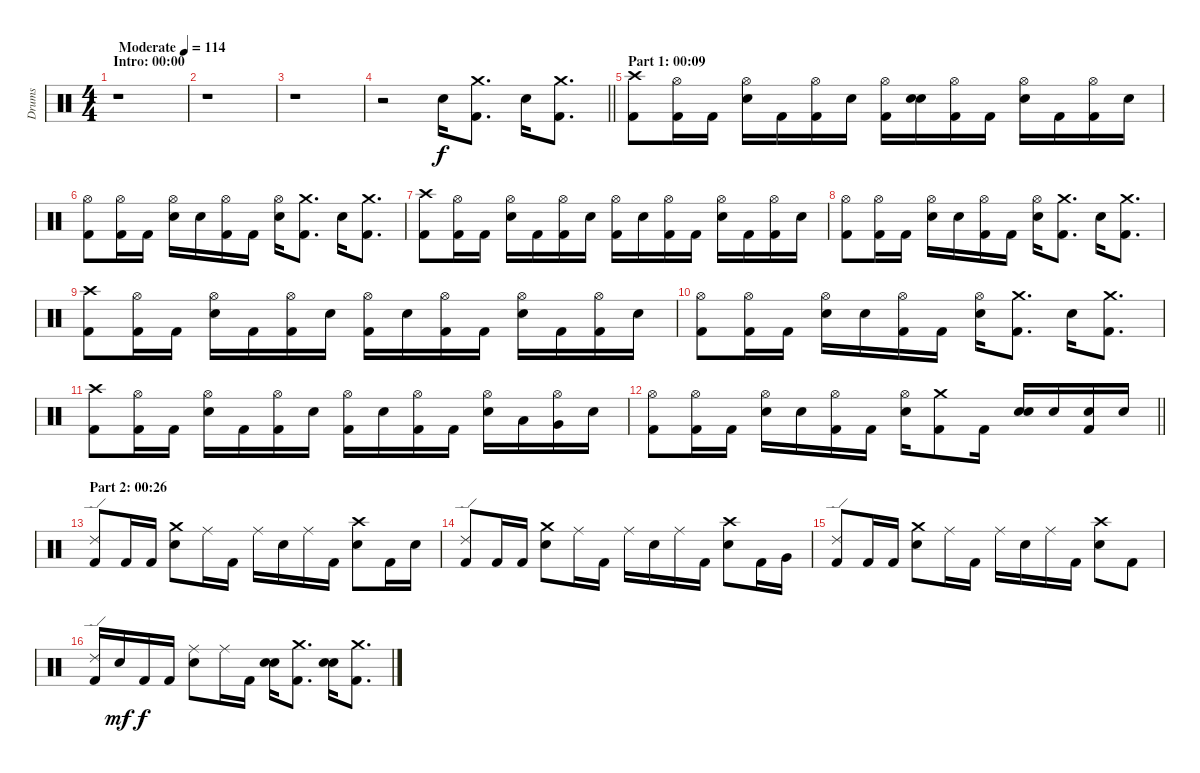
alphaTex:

\track ("Drums" "Drums") {instrument percussion}
\staff {score}
\articulation defaults
\ts (4 4)
\section ("" "Intro: 00:00")
\tempo (114 "Moderate")
\clef neutral
\ks c
r.1{dy f} |
r.1 |
r.1 |
\barLineRight lightlight
r.2 "Electric Snare (hit)".16 ("Crash medium (hit)" "Kick (hit) 2").8{d} "Electric Snare (hit)".16 ("Crash medium (hit)" "Kick (hit) 2").8{d} |
\section ("" "Part 1: 00:09")
("Crash high (hit)" "Kick (hit) 2").8 ("Hi-Hat (open)" "Kick (hit) 2").16 "Kick (hit) 2".16 ("Hi-Hat (open)" "Electric Snare (hit)").16 "Kick (hit) 2".16 ("Hi-Hat (open)" "Kick (hit) 2").16 "Electric Snare (hit)".16 ("Hi-Hat (open)" "Kick (hit) 2").16 ("Electric Snare (hit)" "Electric Snare (hit)").16{bd 120} ("Hi-Hat (open)" "Kick (hit) 2").16 "Kick (hit) 2".16 ("Hi-Hat (open)" "Electric Snare (hit)").16 "Kick (hit) 2".16 ("Hi-Hat (open)" "Kick (hit) 2").16 "Electric Snare (hit)".16 |
("Hi-Hat (open)" "Kick (hit) 2").8 ("Hi-Hat (open)" "Kick (hit) 2").16 "Kick (hit) 2".16 ("Hi-Hat (open)" "Electric Snare (hit)").16 "Electric Snare (hit)".16 ("Hi-Hat (open)" "Kick (hit) 2").16 "Kick (hit) 2".16 ("Hi-Hat (open)" "Electric Snare (hit)").16 ("Crash medium (hit)" "Kick (hit) 2").8{d} "Electric Snare (hit)".16 ("Crash medium (hit)" "Kick (hit) 2").8{d} |
("Crash high (hit)" "Kick (hit) 2").8 ("Hi-Hat (open)" "Kick (hit) 2").16 "Kick (hit) 2".16 ("Hi-Hat (open)" "Electric Snare (hit)").16 "Kick (hit) 2".16 ("Hi-Hat (open)" "Kick (hit) 2").16 "Electric Snare (hit)".16 ("Hi-Hat (open)" "Kick (hit) 2").16 "Electric Snare (hit)".16 ("Hi-Hat (open)" "Kick (hit) 2").16 "Kick (hit) 2".16 ("Hi-Hat (open)" "Electric Snare (hit)").16 "Kick (hit) 2".16 ("Hi-Hat (open)" "Kick (hit) 2").16 "Electric Snare (hit)".16 |
("Hi-Hat (open)" "Kick (hit) 2").8 ("Hi-Hat (open)" "Kick (hit) 2").16 "Kick (hit) 2".16 ("Hi-Hat (open)" "Electric Snare (hit)").16 "Electric Snare (hit)".16 ("Hi-Hat (open)" "Kick (hit) 2").16 "Kick (hit) 2".16 ("Hi-Hat (open)" "Electric Snare (hit)").16 ("Crash medium (hit)" "Kick (hit) 2").8{d} "Electric Snare (hit)".16 ("Crash medium (hit)" "Kick (hit) 2").8{d} |
("Crash high (hit)" "Kick (hit) 2").8 ("Hi-Hat (open)" "Kick (hit) 2").16 "Kick (hit) 2".16 ("Hi-Hat (open)" "Electric Snare (hit)").16 "Kick (hit) 2".16 ("Hi-Hat (open)" "Kick (hit) 2").16 "Electric Snare (hit)".16 ("Hi-Hat (open)" "Kick (hit) 2").16 "Electric Snare (hit)".16 ("Hi-Hat (open)" "Kick (hit) 2").16 "Kick (hit) 2".16 ("Hi-Hat (open)" "Electric Snare (hit)").16 "Kick (hit) 2".16 ("Hi-Hat (open)" "Kick (hit) 2").16 "Electric Snare (hit)".16 |
("Hi-Hat (open)" "Kick (hit) 2").8 ("Hi-Hat (open)" "Kick (hit) 2").16 "Kick (hit) 2".16 ("Hi-Hat (open)" "Electric Snare (hit)").16 "Electric Snare (hit)".16 ("Hi-Hat (open)" "Kick (hit) 2").16 "Kick (hit) 2".16 ("Hi-Hat (open)" "Electric Snare (hit)").16 ("Crash medium (hit)" "Kick (hit) 2").8{d} "Electric Snare (hit)".16 ("Crash medium (hit)" "Kick (hit) 2").8{d} |
("Crash high (hit)" "Kick (hit) 2").8 ("Hi-Hat (open)" "Kick (hit) 2").16 "Kick (hit) 2".16 ("Hi-Hat (open)" "Electric Snare (hit)").16 "Kick (hit) 2".16 ("Hi-Hat (open)" "Kick (hit) 2").16 "Electric Snare (hit)".16 ("Hi-Hat (open)" "Kick (hit) 2").16 "Electric Snare (hit)".16 ("Hi-Hat (open)" "Kick (hit) 2").16 "Kick (hit) 2".16 ("Hi-Hat (open)" "Electric Snare (hit)").16 "Low Tom (hit)".16 ("Hi-Hat (open)" "Very Low Tom (hit)").16 "Electric Snare (hit)".16 |
\barLineRight lightlight
("Hi-Hat (open)" "Kick (hit) 2").8 ("Hi-Hat (open)" "Kick (hit) 2").16 "Kick (hit) 2".16 ("Hi-Hat (open)" "Electric Snare (hit)").16 "Electric Snare (hit)".16 ("Hi-Hat (open)" "Kick (hit) 2").16 "Kick (hit) 2".16 ("Hi-Hat (open)" "Electric Snare (hit)").16 ("Crash medium (hit)" "Kick (hit) 2").8 "Kick (hit) 2".16 ("Electric Snare (hit)" "Electric Snare (hit)").16{bd 120} "Electric Snare (hit)".16 ("Electric Snare (hit)" "Kick (hit) 2").16 "Electric Snare (hit)".16 |
\section ("" "Part 2: 00:26")
("Ride (edge) 2" "Kick (hit) 2").8 "Kick (hit) 2".16 "Kick (hit) 2".16 ("Crash medium (hit)" "Electric Snare (hit)").8 "Ride (middle)".16 "Kick (hit) 2".16 "Ride (middle)".16 "Electric Snare (hit)".16 "Ride (middle)".16 "Kick (hit) 2".16 ("Crash high (hit)" "Electric Snare (hit)").8 "Kick (hit) 2".16 "Electric Snare (hit)".16 |
("Ride (edge) 2" "Kick (hit) 2").8 "Kick (hit) 2".16 "Kick (hit) 2".16 ("Crash medium (hit)" "Electric Snare (hit)").8 "Ride (middle)".16 "Kick (hit) 2".16 "Ride (middle)".16 "Electric Snare (hit)".16 "Ride (middle)".16 "Kick (hit) 2".16 ("Crash high (hit)" "Electric Snare (hit)").8 "Kick (hit) 2".16 "Very Low Tom (hit)".16 |
("Ride (edge) 2" "Kick (hit) 2").8 "Kick (hit) 2".16 "Kick (hit) 2".16 ("Crash medium (hit)" "Electric Snare (hit)").8 "Ride (middle)".16 "Kick (hit) 2".16 "Ride (middle)".16 "Electric Snare (hit)".16 "Ride (middle)".16 "Kick (hit) 2".16 ("Crash high (hit)" "Electric Snare (hit)").8 "Kick (hit) 2".8 |
("Ride (edge) 2" "Kick (hit) 2").16 "Electric Snare (hit)".16{dy mf} "Kick (hit) 2".16{dy f} "Kick (hit) 2".16 ("Ride (middle)" "Electric Snare (hit)").8 "Ride (middle)".16 "Kick (hit) 2".16 ("Electric Snare (hit)" "Electric Snare (hit)").16{bd 120} ("Crash medium (hit)" "Kick (hit) 2").8{d} ("Electric Snare (hit)" "Electric Snare (hit)").16{bd 120} ("Crash medium (hit)" "Kick (hit) 2").8{d}
